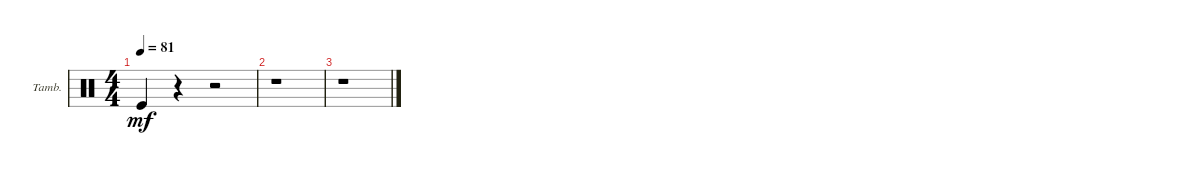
\bracketExtendMode groupsimilarinstruments
\firstSystemTrackNameOrientation horizontal
\otherSystemsTrackNameOrientation horizontal
\track ("Tambourine" "Tamb.") {instrument percussion}
\staff {score}
\articulation defaults
\ts (4 4)
\tempo 81
\clef neutral
\ks c "Kick (hit)".4{dy mf}
r.4 r.2 |
r.1 |
r.1
